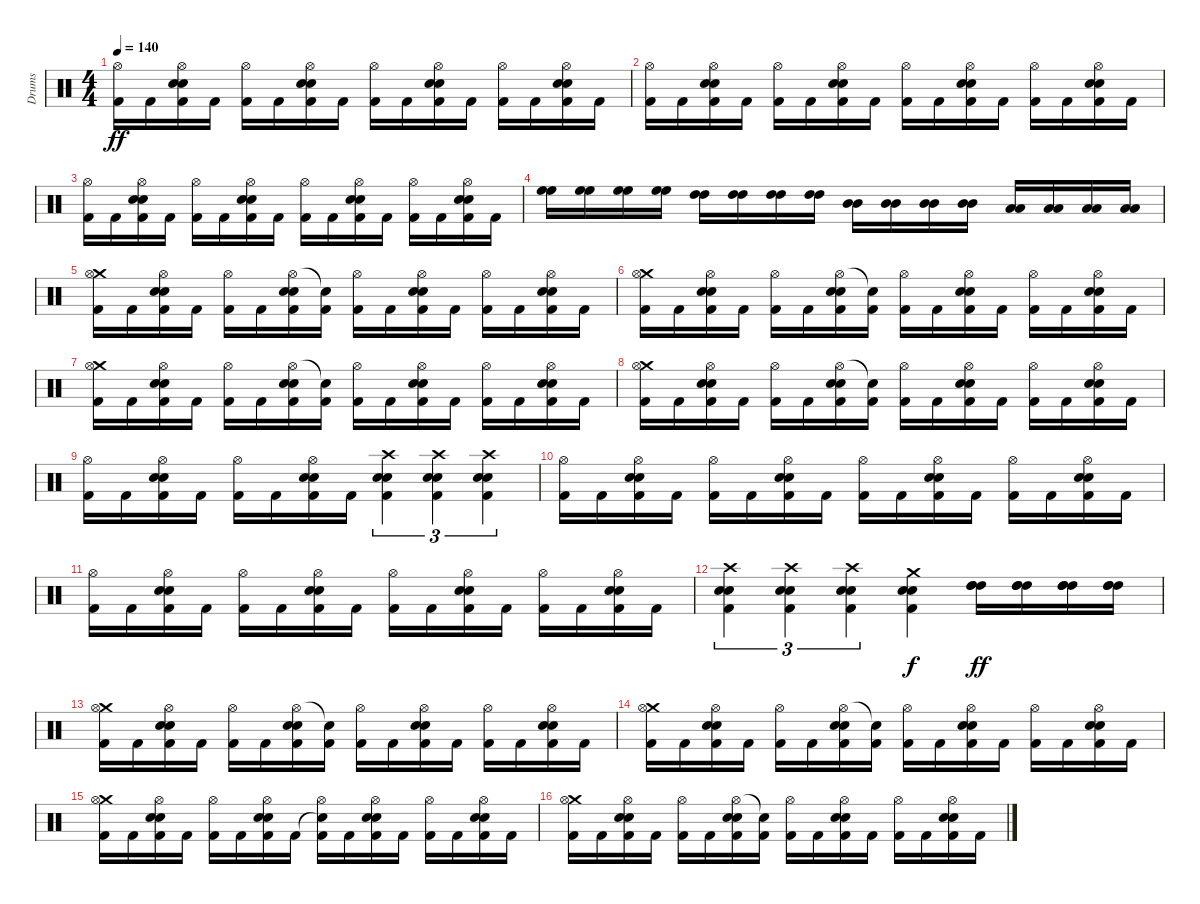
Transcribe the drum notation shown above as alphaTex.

\track ("Drums" "Drums") {instrument percussion}
\staff {score}
\articulation defaults
\ts (4 4)
\tempo 140
\clef neutral
\ks c
("Hi-Hat (open)" "Kick (hit) 2").16{dy ff} "Kick (hit) 2".16 ("Hi-Hat (open)" "Electric Snare (hit)" "Electric Snare (hit)" "Kick (hit) 2").16 "Kick (hit) 2".16 ("Hi-Hat (open)" "Kick (hit) 2").16 "Kick (hit) 2".16 ("Hi-Hat (open)" "Electric Snare (hit)" "Electric Snare (hit)" "Kick (hit) 2").16 "Kick (hit) 2".16 ("Hi-Hat (open)" "Kick (hit) 2").16 "Kick (hit) 2".16 ("Hi-Hat (open)" "Electric Snare (hit)" "Electric Snare (hit)" "Kick (hit) 2").16 "Kick (hit) 2".16 ("Hi-Hat (open)" "Kick (hit) 2").16 "Kick (hit) 2".16 ("Hi-Hat (open)" "Electric Snare (hit)" "Electric Snare (hit)" "Kick (hit) 2").16 "Kick (hit) 2".16 |
("Hi-Hat (open)" "Kick (hit) 2").16 "Kick (hit) 2".16 ("Hi-Hat (open)" "Electric Snare (hit)" "Electric Snare (hit)" "Kick (hit) 2").16 "Kick (hit) 2".16 ("Hi-Hat (open)" "Kick (hit) 2").16 "Kick (hit) 2".16 ("Hi-Hat (open)" "Electric Snare (hit)" "Electric Snare (hit)" "Kick (hit) 2").16 "Kick (hit) 2".16 ("Hi-Hat (open)" "Kick (hit) 2").16 "Kick (hit) 2".16 ("Hi-Hat (open)" "Electric Snare (hit)" "Electric Snare (hit)" "Kick (hit) 2").16 "Kick (hit) 2".16 ("Hi-Hat (open)" "Kick (hit) 2").16 "Kick (hit) 2".16 ("Hi-Hat (open)" "Electric Snare (hit)" "Electric Snare (hit)" "Kick (hit) 2").16 "Kick (hit) 2".16 |
("Hi-Hat (open)" "Kick (hit) 2").16 "Kick (hit) 2".16 ("Hi-Hat (open)" "Electric Snare (hit)" "Electric Snare (hit)" "Kick (hit) 2").16 "Kick (hit) 2".16 ("Hi-Hat (open)" "Kick (hit) 2").16 "Kick (hit) 2".16 ("Hi-Hat (open)" "Electric Snare (hit)" "Electric Snare (hit)" "Kick (hit) 2").16 "Kick (hit) 2".16 ("Hi-Hat (open)" "Kick (hit) 2").16 "Kick (hit) 2".16 ("Hi-Hat (open)" "Electric Snare (hit)" "Electric Snare (hit)" "Kick (hit) 2").16 "Kick (hit) 2".16 ("Hi-Hat (open)" "Kick (hit) 2").16 "Kick (hit) 2".16 ("Hi-Hat (open)" "Electric Snare (hit)" "Electric Snare (hit)" "Kick (hit) 2").16 "Kick (hit) 2".16 |
("High Floor Tom (hit)" "High Floor Tom (hit)").16 ("High Floor Tom (hit)" "High Floor Tom (hit)").16 ("High Floor Tom (hit)" "High Floor Tom (hit)").16 ("High Floor Tom (hit)" "High Floor Tom (hit)").16 ("High Tom (hit)" "High Tom (hit)").16 ("High Tom (hit)" "High Tom (hit)").16 ("High Tom (hit)" "High Tom (hit)").16 ("High Tom (hit)" "High Tom (hit)").16 ("Mid Tom (hit)" "Mid Tom (hit)").16 ("Mid Tom (hit)" "Mid Tom (hit)").16 ("Mid Tom (hit)" "Mid Tom (hit)").16 ("Mid Tom (hit)" "Mid Tom (hit)").16 ("Low Tom (hit)" "Low Tom (hit)").16 ("Low Tom (hit)" "Low Tom (hit)").16 ("Low Tom (hit)" "Low Tom (hit)").16 ("Low Tom (hit)" "Low Tom (hit)").16 |
("Crash medium (hit)" "Hi-Hat (open)" "Kick (hit) 2").16 "Kick (hit) 2".16 ("Hi-Hat (open)" "Electric Snare (hit)" "Electric Snare (hit)" "Kick (hit) 2").16 "Kick (hit) 2".16 ("Hi-Hat (open)" "Kick (hit) 2").16 "Kick (hit) 2".16 ("Hi-Hat (open)" "Electric Snare (hit)" "Electric Snare (hit)" "Kick (hit) 2").16 ("Snare (hit)"{t} "Kick (hit) 2").16 ("Hi-Hat (open)" "Kick (hit) 2").16 "Kick (hit) 2".16 ("Hi-Hat (open)" "Electric Snare (hit)" "Electric Snare (hit)" "Kick (hit) 2").16 "Kick (hit) 2".16 ("Hi-Hat (open)" "Kick (hit) 2").16 "Kick (hit) 2".16 ("Hi-Hat (open)" "Electric Snare (hit)" "Electric Snare (hit)" "Kick (hit) 2").16 "Kick (hit) 2".16 |
("Crash medium (hit)" "Hi-Hat (open)" "Kick (hit) 2").16 "Kick (hit) 2".16 ("Hi-Hat (open)" "Electric Snare (hit)" "Electric Snare (hit)" "Kick (hit) 2").16 "Kick (hit) 2".16 ("Hi-Hat (open)" "Kick (hit) 2").16 "Kick (hit) 2".16 ("Hi-Hat (open)" "Electric Snare (hit)" "Electric Snare (hit)" "Kick (hit) 2").16 ("Snare (hit)"{t} "Kick (hit) 2").16 ("Hi-Hat (open)" "Kick (hit) 2").16 "Kick (hit) 2".16 ("Hi-Hat (open)" "Electric Snare (hit)" "Electric Snare (hit)" "Kick (hit) 2").16 "Kick (hit) 2".16 ("Hi-Hat (open)" "Kick (hit) 2").16 "Kick (hit) 2".16 ("Hi-Hat (open)" "Electric Snare (hit)" "Electric Snare (hit)" "Kick (hit) 2").16 "Kick (hit) 2".16 |
("Crash medium (hit)" "Hi-Hat (open)" "Kick (hit) 2").16 "Kick (hit) 2".16 ("Hi-Hat (open)" "Electric Snare (hit)" "Electric Snare (hit)" "Kick (hit) 2").16 "Kick (hit) 2".16 ("Hi-Hat (open)" "Kick (hit) 2").16 "Kick (hit) 2".16 ("Hi-Hat (open)" "Electric Snare (hit)" "Electric Snare (hit)" "Kick (hit) 2").16 ("Snare (hit)"{t} "Kick (hit) 2").16 ("Hi-Hat (open)" "Kick (hit) 2").16 "Kick (hit) 2".16 ("Hi-Hat (open)" "Electric Snare (hit)" "Electric Snare (hit)" "Kick (hit) 2").16 "Kick (hit) 2".16 ("Hi-Hat (open)" "Kick (hit) 2").16 "Kick (hit) 2".16 ("Hi-Hat (open)" "Electric Snare (hit)" "Electric Snare (hit)" "Kick (hit) 2").16 "Kick (hit) 2".16 |
("Crash medium (hit)" "Hi-Hat (open)" "Kick (hit) 2").16 "Kick (hit) 2".16 ("Hi-Hat (open)" "Electric Snare (hit)" "Electric Snare (hit)" "Kick (hit) 2").16 "Kick (hit) 2".16 ("Hi-Hat (open)" "Kick (hit) 2").16 "Kick (hit) 2".16 ("Hi-Hat (open)" "Electric Snare (hit)" "Electric Snare (hit)" "Kick (hit) 2").16 ("Snare (hit)"{t} "Kick (hit) 2").16 ("Hi-Hat (open)" "Kick (hit) 2").16 "Kick (hit) 2".16 ("Hi-Hat (open)" "Electric Snare (hit)" "Electric Snare (hit)" "Kick (hit) 2").16 "Kick (hit) 2".16 ("Hi-Hat (open)" "Kick (hit) 2").16 "Kick (hit) 2".16 ("Hi-Hat (open)" "Electric Snare (hit)" "Electric Snare (hit)" "Kick (hit) 2").16 "Kick (hit) 2".16 |
("Hi-Hat (open)" "Kick (hit) 2").16 "Kick (hit) 2".16 ("Hi-Hat (open)" "Electric Snare (hit)" "Electric Snare (hit)" "Kick (hit) 2").16 "Kick (hit) 2".16 ("Hi-Hat (open)" "Kick (hit) 2").16 "Kick (hit) 2".16 ("Hi-Hat (open)" "Electric Snare (hit)" "Electric Snare (hit)" "Kick (hit) 2").16 "Kick (hit) 2".16 ("Crash high (hit)" "Electric Snare (hit)" "Electric Snare (hit)" "Kick (hit) 2").4{tu (3 2)} ("Crash high (hit)" "Electric Snare (hit)" "Electric Snare (hit)" "Kick (hit) 2").4{tu (3 2)} ("Crash high (hit)" "Electric Snare (hit)" "Electric Snare (hit)" "Kick (hit) 2").4{tu (3 2)} |
("Hi-Hat (open)" "Kick (hit) 2").16 "Kick (hit) 2".16 ("Hi-Hat (open)" "Electric Snare (hit)" "Electric Snare (hit)" "Kick (hit) 2").16 "Kick (hit) 2".16 ("Hi-Hat (open)" "Kick (hit) 2").16 "Kick (hit) 2".16 ("Hi-Hat (open)" "Electric Snare (hit)" "Electric Snare (hit)" "Kick (hit) 2").16 "Kick (hit) 2".16 ("Hi-Hat (open)" "Kick (hit) 2").16 "Kick (hit) 2".16 ("Hi-Hat (open)" "Electric Snare (hit)" "Electric Snare (hit)" "Kick (hit) 2").16 "Kick (hit) 2".16 ("Hi-Hat (open)" "Kick (hit) 2").16 "Kick (hit) 2".16 ("Hi-Hat (open)" "Electric Snare (hit)" "Electric Snare (hit)" "Kick (hit) 2").16 "Kick (hit) 2".16 |
("Hi-Hat (open)" "Kick (hit) 2").16 "Kick (hit) 2".16 ("Hi-Hat (open)" "Electric Snare (hit)" "Electric Snare (hit)" "Kick (hit) 2").16 "Kick (hit) 2".16 ("Hi-Hat (open)" "Kick (hit) 2").16 "Kick (hit) 2".16 ("Hi-Hat (open)" "Electric Snare (hit)" "Electric Snare (hit)" "Kick (hit) 2").16 "Kick (hit) 2".16 ("Hi-Hat (open)" "Kick (hit) 2").16 "Kick (hit) 2".16 ("Hi-Hat (open)" "Electric Snare (hit)" "Electric Snare (hit)" "Kick (hit) 2").16 "Kick (hit) 2".16 ("Hi-Hat (open)" "Kick (hit) 2").16 "Kick (hit) 2".16 ("Hi-Hat (open)" "Electric Snare (hit)" "Electric Snare (hit)" "Kick (hit) 2").16 "Kick (hit) 2".16 |
("Crash high (hit)" "Electric Snare (hit)" "Electric Snare (hit)" "Kick (hit) 2").4{tu (3 2)} ("Crash high (hit)" "Electric Snare (hit)" "Electric Snare (hit)" "Kick (hit) 2").4{tu (3 2)} ("Crash high (hit)" "Electric Snare (hit)" "Electric Snare (hit)" "Kick (hit) 2").4{tu (3 2)} ("Crash medium (hit)" "Electric Snare (hit)" "Electric Snare (hit)" "Kick (hit) 2").4{dy f} ("High Tom (hit)" "High Tom (hit)" "High Tom (hit)").16{dy ff} ("High Tom (hit)" "High Tom (hit)" "High Tom (hit)").16 ("High Tom (hit)" "High Tom (hit)" "High Tom (hit)").16 ("High Tom (hit)" "High Tom (hit)" "High Tom (hit)").16 |
("Crash medium (hit)" "Hi-Hat (open)" "Kick (hit) 2").16 "Kick (hit) 2".16 ("Hi-Hat (open)" "Electric Snare (hit)" "Electric Snare (hit)" "Kick (hit) 2").16 "Kick (hit) 2".16 ("Hi-Hat (open)" "Kick (hit) 2").16 "Kick (hit) 2".16 ("Hi-Hat (open)" "Electric Snare (hit)" "Electric Snare (hit)" "Kick (hit) 2").16 ("Snare (hit)"{t} "Kick (hit) 2").16 ("Hi-Hat (open)" "Kick (hit) 2").16 "Kick (hit) 2".16 ("Hi-Hat (open)" "Electric Snare (hit)" "Electric Snare (hit)" "Kick (hit) 2").16 "Kick (hit) 2".16 ("Hi-Hat (open)" "Kick (hit) 2").16 "Kick (hit) 2".16 ("Hi-Hat (open)" "Electric Snare (hit)" "Electric Snare (hit)" "Kick (hit) 2").16 "Kick (hit) 2".16 |
("Crash medium (hit)" "Hi-Hat (open)" "Kick (hit) 2").16 "Kick (hit) 2".16 ("Hi-Hat (open)" "Electric Snare (hit)" "Electric Snare (hit)" "Kick (hit) 2").16 "Kick (hit) 2".16 ("Hi-Hat (open)" "Kick (hit) 2").16 "Kick (hit) 2".16 ("Hi-Hat (open)" "Electric Snare (hit)" "Electric Snare (hit)" "Kick (hit) 2").16 ("Snare (hit)"{t} "Kick (hit) 2").16 ("Hi-Hat (open)" "Kick (hit) 2").16 "Kick (hit) 2".16 ("Hi-Hat (open)" "Electric Snare (hit)" "Electric Snare (hit)" "Kick (hit) 2").16 "Kick (hit) 2".16 ("Hi-Hat (open)" "Kick (hit) 2").16 "Kick (hit) 2".16 ("Hi-Hat (open)" "Electric Snare (hit)" "Electric Snare (hit)" "Kick (hit) 2").16 "Kick (hit) 2".16 |
("Crash medium (hit)" "Hi-Hat (open)" "Kick (hit) 2").16 "Kick (hit) 2".16 ("Hi-Hat (open)" "Electric Snare (hit)" "Electric Snare (hit)" "Kick (hit) 2").16 "Kick (hit) 2".16 ("Hi-Hat (open)" "Kick (hit) 2").16 "Kick (hit) 2".16 ("Hi-Hat (open)" "Electric Snare (hit)" "Electric Snare (hit)" "Kick (hit) 2").16 "Kick (hit) 2".16 ("Snare (hit)"{t} "Hi-Hat (open)" "Kick (hit) 2").16 "Kick (hit) 2".16 ("Hi-Hat (open)" "Electric Snare (hit)" "Electric Snare (hit)" "Kick (hit) 2").16 "Kick (hit) 2".16 ("Hi-Hat (open)" "Kick (hit) 2").16 "Kick (hit) 2".16 ("Hi-Hat (open)" "Electric Snare (hit)" "Electric Snare (hit)" "Kick (hit) 2").16 "Kick (hit) 2".16 |
("Crash medium (hit)" "Hi-Hat (open)" "Kick (hit) 2").16 "Kick (hit) 2".16 ("Hi-Hat (open)" "Electric Snare (hit)" "Electric Snare (hit)" "Kick (hit) 2").16 "Kick (hit) 2".16 ("Hi-Hat (open)" "Kick (hit) 2").16 "Kick (hit) 2".16 ("Hi-Hat (open)" "Electric Snare (hit)" "Electric Snare (hit)" "Kick (hit) 2").16 ("Snare (hit)"{t} "Kick (hit) 2").16 ("Hi-Hat (open)" "Kick (hit) 2").16 "Kick (hit) 2".16 ("Hi-Hat (open)" "Electric Snare (hit)" "Electric Snare (hit)" "Kick (hit) 2").16 "Kick (hit) 2".16 ("Hi-Hat (open)" "Kick (hit) 2").16 "Kick (hit) 2".16 ("Hi-Hat (open)" "Electric Snare (hit)" "Electric Snare (hit)" "Kick (hit) 2").16 "Kick (hit) 2".16
